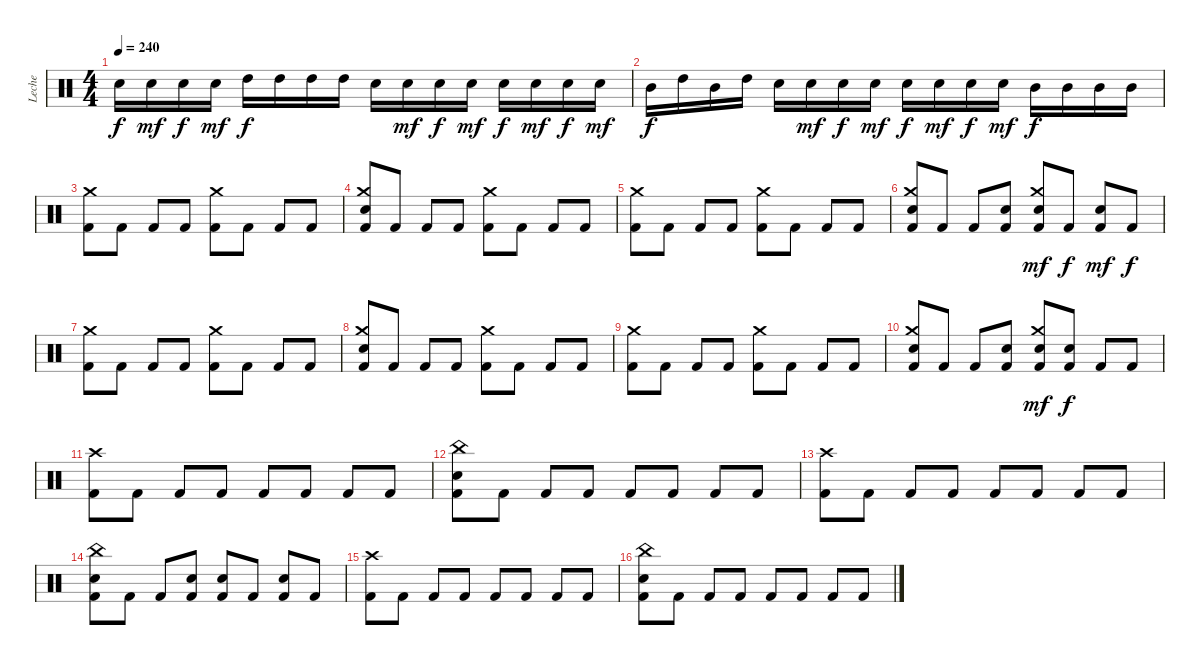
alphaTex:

\track ("Leche" "Leche") {instrument percussion}
\staff {score}
\articulation defaults
\ts (4 4)
\tempo 240
\clef neutral
\ks c "Electric Snare (hit)".16{dy f} "Electric Snare (hit)".16{dy mf} "Electric Snare (hit)".16{dy f} "Electric Snare (hit)".16{dy mf} "High Tom (hit)".16{dy f} "High Tom (hit)".16 "High Tom (hit)".16 "High Tom (hit)".16 "Electric Snare (hit)".16 "Electric Snare (hit)".16{dy mf} "Electric Snare (hit)".16{dy f} "Electric Snare (hit)".16{dy mf} "Electric Snare (hit)".16{dy f} "Electric Snare (hit)".16{dy mf} "Electric Snare (hit)".16{dy f} "Electric Snare (hit)".16{dy mf}
|
"Mid Tom (hit)".16{dy f} "High Tom (hit)".16 "Mid Tom (hit)".16 "High Tom (hit)".16 "Electric Snare (hit)".16 "Electric Snare (hit)".16{dy mf} "Electric Snare (hit)".16{dy f} "Electric Snare (hit)".16{dy mf} "Electric Snare (hit)".16{dy f} "Electric Snare (hit)".16{dy mf} "Electric Snare (hit)".16{dy f} "Electric Snare (hit)".16{dy mf} "Mid Tom (hit)".16{dy f} "Mid Tom (hit)".16 "Mid Tom (hit)".16 "Mid Tom (hit)".16 |
("Crash medium (hit)" "Kick (hit) 2").8 "Kick (hit) 2".8 "Kick (hit) 2".8 "Kick (hit) 2".8 ("Crash medium (hit)" "Kick (hit) 2").8 "Kick (hit) 2".8 "Kick (hit) 2".8 "Kick (hit) 2".8 |
("Crash medium (hit)" "Electric Snare (hit)" "Kick (hit) 2").8 "Kick (hit) 2".8 "Kick (hit) 2".8 "Kick (hit) 2".8 ("Crash medium (hit)" "Kick (hit) 2").8 "Kick (hit) 2".8 "Kick (hit) 2".8 "Kick (hit) 2".8 |
("Crash medium (hit)" "Kick (hit) 2").8 "Kick (hit) 2".8 "Kick (hit) 2".8 "Kick (hit) 2".8 ("Crash medium (hit)" "Kick (hit) 2").8 "Kick (hit) 2".8 "Kick (hit) 2".8 "Kick (hit) 2".8 |
("Crash medium (hit)" "Electric Snare (hit)" "Kick (hit) 2").8 "Kick (hit) 2".8 "Kick (hit) 2".8 ("Electric Snare (hit)" "Kick (hit) 2").8 ("Crash medium (hit)" "Electric Snare (hit)" "Kick (hit) 2").8{dy mf} "Kick (hit) 2".8{dy f} ("Electric Snare (hit)" "Kick (hit) 2").8{dy mf} "Kick (hit) 2".8{dy f} |
("Crash medium (hit)" "Kick (hit) 2").8 "Kick (hit) 2".8 "Kick (hit) 2".8 "Kick (hit) 2".8 ("Crash medium (hit)" "Kick (hit) 2").8 "Kick (hit) 2".8 "Kick (hit) 2".8 "Kick (hit) 2".8 |
("Crash medium (hit)" "Electric Snare (hit)" "Kick (hit) 2").8 "Kick (hit) 2".8 "Kick (hit) 2".8 "Kick (hit) 2".8 ("Crash medium (hit)" "Kick (hit) 2").8 "Kick (hit) 2".8 "Kick (hit) 2".8 "Kick (hit) 2".8 |
("Crash medium (hit)" "Kick (hit) 2").8 "Kick (hit) 2".8 "Kick (hit) 2".8 "Kick (hit) 2".8 ("Crash medium (hit)" "Kick (hit) 2").8 "Kick (hit) 2".8 "Kick (hit) 2".8 "Kick (hit) 2".8 |
("Crash medium (hit)" "Electric Snare (hit)" "Kick (hit) 2").8 "Kick (hit) 2".8 "Kick (hit) 2".8 ("Electric Snare (hit)" "Kick (hit) 2").8 ("Crash medium (hit)" "Electric Snare (hit)" "Kick (hit) 2").8{dy mf} ("Electric Snare (hit)" "Kick (hit) 2").8{dy f} "Kick (hit) 2".8 "Kick (hit) 2".8 |
("Crash high (hit)" "Kick (hit) 2").8 "Kick (hit) 2".8 "Kick (hit) 2".8 "Kick (hit) 2".8 "Kick (hit) 2".8 "Kick (hit) 2".8 "Kick (hit) 2".8 "Kick (hit) 2".8 |
("China (hit)" "Electric Snare (hit)" "Kick (hit) 2").8 "Kick (hit) 2".8 "Kick (hit) 2".8 "Kick (hit) 2".8 "Kick (hit) 2".8 "Kick (hit) 2".8 "Kick (hit) 2".8 "Kick (hit) 2".8 |
("Crash high (hit)" "Kick (hit) 2").8 "Kick (hit) 2".8 "Kick (hit) 2".8 "Kick (hit) 2".8 "Kick (hit) 2".8 "Kick (hit) 2".8 "Kick (hit) 2".8 "Kick (hit) 2".8 |
("China (hit)" "Electric Snare (hit)" "Kick (hit) 2").8 "Kick (hit) 2".8 "Kick (hit) 2".8 ("Electric Snare (hit)" "Kick (hit) 2").8 ("Electric Snare (hit)" "Kick (hit) 2").8 "Kick (hit) 2".8 ("Electric Snare (hit)" "Kick (hit) 2").8 "Kick (hit) 2".8 |
("Crash high (hit)" "Kick (hit) 2").8 "Kick (hit) 2".8 "Kick (hit) 2".8 "Kick (hit) 2".8 "Kick (hit) 2".8 "Kick (hit) 2".8 "Kick (hit) 2".8 "Kick (hit) 2".8 |
("China (hit)" "Electric Snare (hit)" "Kick (hit) 2").8 "Kick (hit) 2".8 "Kick (hit) 2".8 "Kick (hit) 2".8 "Kick (hit) 2".8 "Kick (hit) 2".8 "Kick (hit) 2".8 "Kick (hit) 2".8
